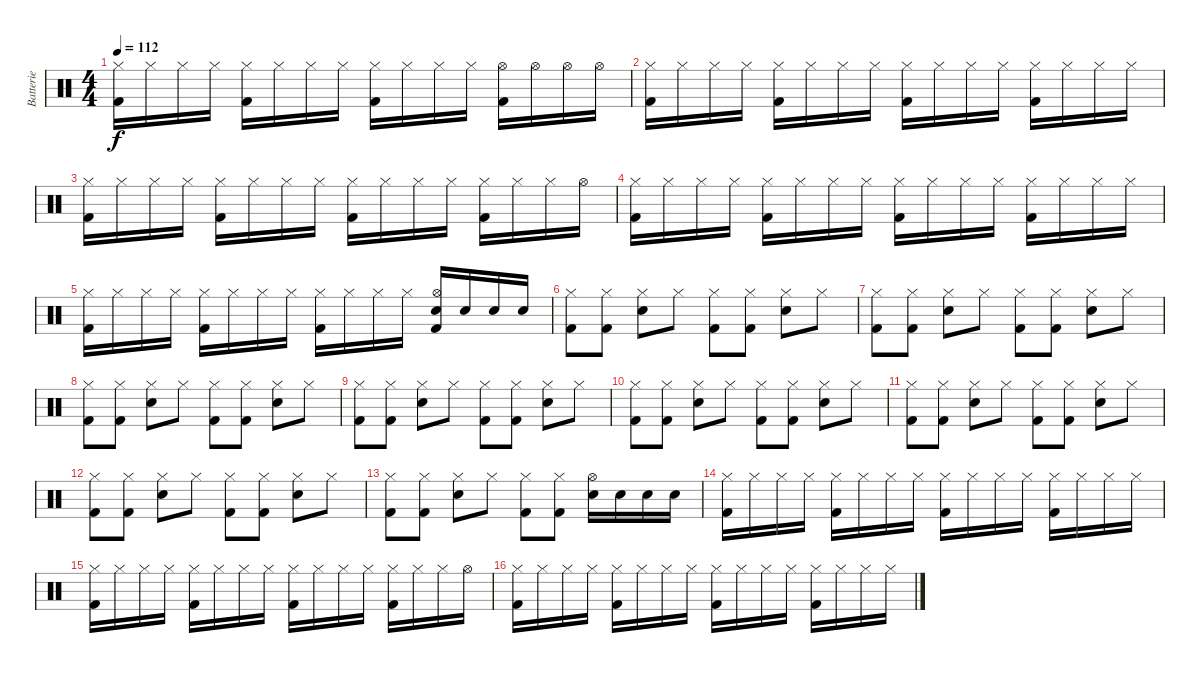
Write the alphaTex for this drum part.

\track ("Batterie" "Batterie") {instrument percussion}
\staff {score}
\articulation defaults
\ts (4 4)
\tempo 112
\clef neutral
\ks c
("Kick (hit) 2" "Hi-Hat (closed)").16{dy f} "Hi-Hat (closed)".16 "Hi-Hat (closed)".16 "Hi-Hat (closed)".16 ("Kick (hit) 2" "Hi-Hat (closed)").16 "Hi-Hat (closed)".16 "Hi-Hat (closed)".16 "Hi-Hat (closed)".16 ("Kick (hit) 2" "Hi-Hat (closed)").16 "Hi-Hat (closed)".16 "Hi-Hat (closed)".16 "Hi-Hat (closed)".16 ("Kick (hit) 2" "Hi-Hat (open)").16 "Hi-Hat (open)".16 "Hi-Hat (open)".16 "Hi-Hat (open)".16 |
("Kick (hit) 2" "Hi-Hat (closed)").16 "Hi-Hat (closed)".16 "Hi-Hat (closed)".16 "Hi-Hat (closed)".16 ("Kick (hit) 2" "Hi-Hat (closed)").16 "Hi-Hat (closed)".16 "Hi-Hat (closed)".16 "Hi-Hat (closed)".16 ("Kick (hit) 2" "Hi-Hat (closed)").16 "Hi-Hat (closed)".16 "Hi-Hat (closed)".16 "Hi-Hat (closed)".16 ("Kick (hit) 2" "Hi-Hat (closed)").16 "Hi-Hat (closed)".16 "Hi-Hat (closed)".16 "Hi-Hat (closed)".16 |
("Kick (hit) 2" "Hi-Hat (closed)").16 "Hi-Hat (closed)".16 "Hi-Hat (closed)".16 "Hi-Hat (closed)".16 ("Kick (hit) 2" "Hi-Hat (closed)").16 "Hi-Hat (closed)".16 "Hi-Hat (closed)".16 "Hi-Hat (closed)".16 ("Kick (hit) 2" "Hi-Hat (closed)").16 "Hi-Hat (closed)".16 "Hi-Hat (closed)".16 "Hi-Hat (closed)".16 ("Kick (hit) 2" "Hi-Hat (closed)").16 "Hi-Hat (closed)".16 "Hi-Hat (closed)".16 "Hi-Hat (open)".16 |
("Kick (hit) 2" "Hi-Hat (closed)").16 "Hi-Hat (closed)".16 "Hi-Hat (closed)".16 "Hi-Hat (closed)".16 ("Kick (hit) 2" "Hi-Hat (closed)").16 "Hi-Hat (closed)".16 "Hi-Hat (closed)".16 "Hi-Hat (closed)".16 ("Kick (hit) 2" "Hi-Hat (closed)").16 "Hi-Hat (closed)".16 "Hi-Hat (closed)".16 "Hi-Hat (closed)".16 ("Kick (hit) 2" "Hi-Hat (closed)").16 "Hi-Hat (closed)".16 "Hi-Hat (closed)".16 "Hi-Hat (closed)".16 |
("Kick (hit) 2" "Hi-Hat (closed)").16 "Hi-Hat (closed)".16 "Hi-Hat (closed)".16 "Hi-Hat (closed)".16 ("Kick (hit) 2" "Hi-Hat (closed)").16 "Hi-Hat (closed)".16 "Hi-Hat (closed)".16 "Hi-Hat (closed)".16 ("Kick (hit) 2" "Hi-Hat (closed)").16 "Hi-Hat (closed)".16 "Hi-Hat (closed)".16 "Hi-Hat (closed)".16 ("Kick (hit) 2" "Electric Snare (hit)" "Hi-Hat (open)").16 "Electric Snare (hit)".16 "Electric Snare (hit)".16 "Electric Snare (hit)".16 |
("Kick (hit) 2" "Hi-Hat (closed)").8 ("Kick (hit) 2" "Hi-Hat (closed)").8 ("Electric Snare (hit)" "Hi-Hat (closed)").8 "Hi-Hat (closed)".8 ("Kick (hit) 2" "Hi-Hat (closed)").8 ("Kick (hit) 2" "Hi-Hat (closed)").8 ("Electric Snare (hit)" "Hi-Hat (closed)").8 "Hi-Hat (closed)".8 |
("Kick (hit) 2" "Hi-Hat (closed)").8 ("Kick (hit) 2" "Hi-Hat (closed)").8 ("Electric Snare (hit)" "Hi-Hat (closed)").8 "Hi-Hat (closed)".8 ("Kick (hit) 2" "Hi-Hat (closed)").8 ("Kick (hit) 2" "Hi-Hat (closed)").8 ("Electric Snare (hit)" "Hi-Hat (closed)").8 "Hi-Hat (closed)".8 |
("Kick (hit) 2" "Hi-Hat (closed)").8 ("Kick (hit) 2" "Hi-Hat (closed)").8 ("Electric Snare (hit)" "Hi-Hat (closed)").8 "Hi-Hat (closed)".8 ("Kick (hit) 2" "Hi-Hat (closed)").8 ("Kick (hit) 2" "Hi-Hat (closed)").8 ("Electric Snare (hit)" "Hi-Hat (closed)").8 "Hi-Hat (closed)".8 |
("Kick (hit) 2" "Hi-Hat (closed)").8 ("Kick (hit) 2" "Hi-Hat (closed)").8 ("Electric Snare (hit)" "Hi-Hat (closed)").8 "Hi-Hat (closed)".8 ("Kick (hit) 2" "Hi-Hat (closed)").8 ("Kick (hit) 2" "Hi-Hat (closed)").8 ("Electric Snare (hit)" "Hi-Hat (closed)").8 "Hi-Hat (closed)".8 |
("Kick (hit) 2" "Hi-Hat (closed)").8 ("Kick (hit) 2" "Hi-Hat (closed)").8 ("Electric Snare (hit)" "Hi-Hat (closed)").8 "Hi-Hat (closed)".8 ("Kick (hit) 2" "Hi-Hat (closed)").8 ("Kick (hit) 2" "Hi-Hat (closed)").8 ("Electric Snare (hit)" "Hi-Hat (closed)").8 "Hi-Hat (closed)".8 |
("Kick (hit) 2" "Hi-Hat (closed)").8 ("Kick (hit) 2" "Hi-Hat (closed)").8 ("Electric Snare (hit)" "Hi-Hat (closed)").8 "Hi-Hat (closed)".8 ("Kick (hit) 2" "Hi-Hat (closed)").8 ("Kick (hit) 2" "Hi-Hat (closed)").8 ("Electric Snare (hit)" "Hi-Hat (closed)").8 "Hi-Hat (closed)".8 |
("Kick (hit) 2" "Hi-Hat (closed)").8 ("Kick (hit) 2" "Hi-Hat (closed)").8 ("Electric Snare (hit)" "Hi-Hat (closed)").8 "Hi-Hat (closed)".8 ("Kick (hit) 2" "Hi-Hat (closed)").8 ("Kick (hit) 2" "Hi-Hat (closed)").8 ("Electric Snare (hit)" "Hi-Hat (closed)").8 "Hi-Hat (closed)".8 |
("Kick (hit) 2" "Hi-Hat (closed)").8 ("Kick (hit) 2" "Hi-Hat (closed)").8 ("Electric Snare (hit)" "Hi-Hat (closed)").8 "Hi-Hat (closed)".8 ("Kick (hit) 2" "Hi-Hat (closed)").8 ("Kick (hit) 2" "Hi-Hat (closed)").8 ("Electric Snare (hit)" "Hi-Hat (open)").16 "Electric Snare (hit)".16 "Electric Snare (hit)".16 "Electric Snare (hit)".16 |
("Kick (hit) 2" "Hi-Hat (closed)").16 "Hi-Hat (closed)".16 "Hi-Hat (closed)".16 "Hi-Hat (closed)".16 ("Kick (hit) 2" "Hi-Hat (closed)").16 "Hi-Hat (closed)".16 "Hi-Hat (closed)".16 "Hi-Hat (closed)".16 ("Kick (hit) 2" "Hi-Hat (closed)").16 "Hi-Hat (closed)".16 "Hi-Hat (closed)".16 "Hi-Hat (closed)".16 ("Kick (hit) 2" "Hi-Hat (closed)").16 "Hi-Hat (closed)".16 "Hi-Hat (closed)".16 "Hi-Hat (closed)".16 |
("Kick (hit) 2" "Hi-Hat (closed)").16 "Hi-Hat (closed)".16 "Hi-Hat (closed)".16 "Hi-Hat (closed)".16 ("Kick (hit) 2" "Hi-Hat (closed)").16 "Hi-Hat (closed)".16 "Hi-Hat (closed)".16 "Hi-Hat (closed)".16 ("Kick (hit) 2" "Hi-Hat (closed)").16 "Hi-Hat (closed)".16 "Hi-Hat (closed)".16 "Hi-Hat (closed)".16 ("Kick (hit) 2" "Hi-Hat (closed)").16 "Hi-Hat (closed)".16 "Hi-Hat (closed)".16 "Hi-Hat (open)".16 |
("Kick (hit) 2" "Hi-Hat (closed)").16 "Hi-Hat (closed)".16 "Hi-Hat (closed)".16 "Hi-Hat (closed)".16 ("Kick (hit) 2" "Hi-Hat (closed)").16 "Hi-Hat (closed)".16 "Hi-Hat (closed)".16 "Hi-Hat (closed)".16 ("Kick (hit) 2" "Hi-Hat (closed)").16 "Hi-Hat (closed)".16 "Hi-Hat (closed)".16 "Hi-Hat (closed)".16 ("Kick (hit) 2" "Hi-Hat (closed)").16 "Hi-Hat (closed)".16 "Hi-Hat (closed)".16 "Hi-Hat (closed)".16
